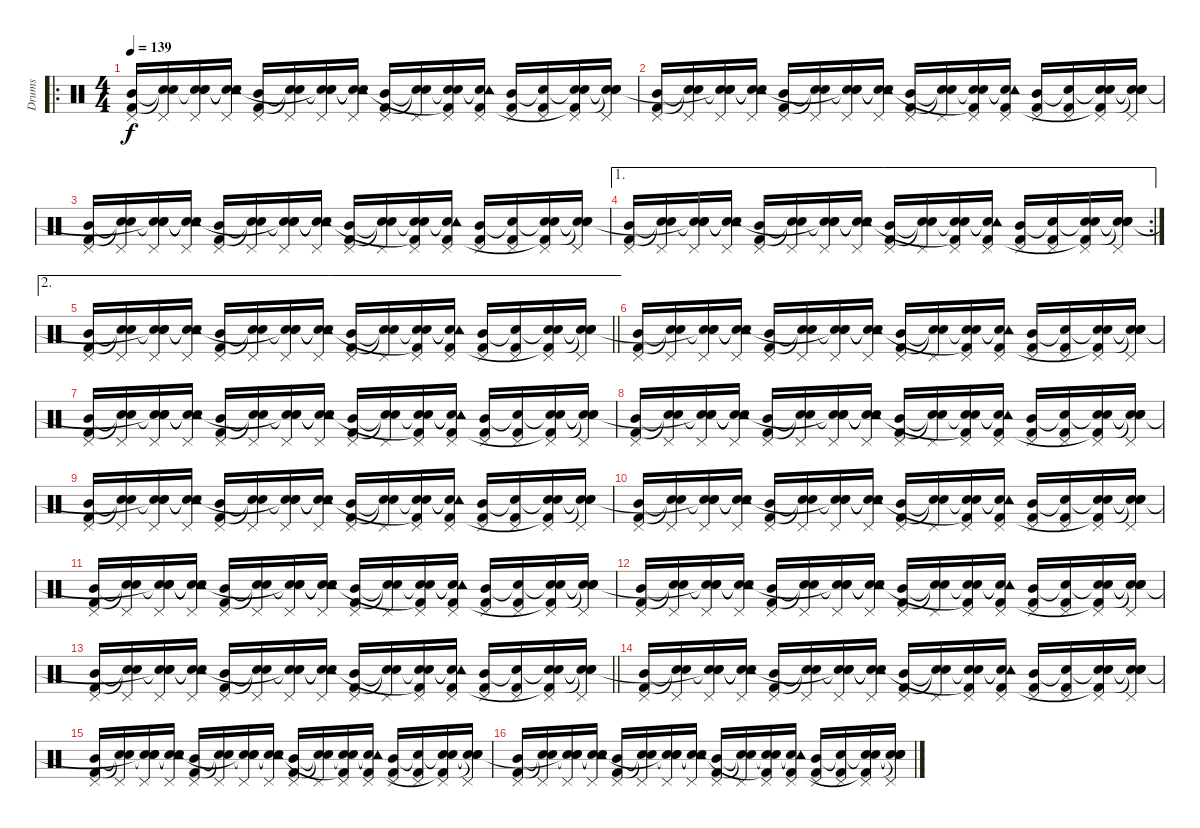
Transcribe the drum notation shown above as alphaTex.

\track ("Drums" "Drums") {instrument percussion}
\staff {score}
\articulation defaults
\ro
\ts (4 4)
\tempo 139
\clef neutral
\ks c
("Mid Tom (hit)" "Pedal Hi-Hat (hit)" "Kick (hit) 2").16{dy f} ("Snare (hit)"{t} "Pedal Hi-Hat (hit)" "Snare (hit)"{t}).16 ("Snare (hit)"{t} "Snare (hit) 2" "Pedal Hi-Hat (hit)" "Snare (hit)"{t}).16 ("Snare (hit)"{t} "Tambourine (hit)"{t} "Pedal Hi-Hat (hit)" "Snare (hit)"{t}).16 ("Mid Tom (hit)" "Pedal Hi-Hat (hit)" "Kick (hit) 2").16 ("Snare (hit)"{t} "Pedal Hi-Hat (hit)" "Snare (hit)"{t}).16 ("Snare (hit)"{t} "Snare (hit) 2" "Pedal Hi-Hat (hit)" "Snare (hit)"{t}).16 ("Snare (hit)"{t} "Tambourine (hit)"{t} "Pedal Hi-Hat (hit)" "Snare (hit)"{t}).16 ("Mid Tom (hit)" "Pedal Hi-Hat (hit)" "Kick (hit) 2").16 ("Snare (hit)"{t} "Pedal Hi-Hat (hit)" "Snare (hit)"{t}).16 ("Snare (hit)"{t} "Snare (hit) 2" "Pedal Hi-Hat (hit)" "Kick (hit) 2"{t}).16 ("Snare (hit)"{t} "Tambourine (hit)"{t} "Pedal Hi-Hat (hit)" "Kick (hit) 2").16 ("Mid Tom (hit)" "Pedal Hi-Hat (hit)" "Kick (hit) 2").16 ("Snare (hit)"{t} "Pedal Hi-Hat (hit)" "Kick (hit) 2").16 ("Snare (hit)"{t} "Snare (hit) 2" "Pedal Hi-Hat (hit)" "Kick (hit) 2"{t}).16 ("Snare (hit)"{t} "Snare (hit)"{t} "Pedal Hi-Hat (hit)" "Snare (hit)"{t}).16 |
("Mid Tom (hit)" "Pedal Hi-Hat (hit)" "Kick (hit) 2").16 ("Snare (hit)"{t} "Pedal Hi-Hat (hit)" "Snare (hit)"{t}).16 ("Snare (hit)"{t} "Snare (hit) 2" "Pedal Hi-Hat (hit)" "Snare (hit)"{t}).16 ("Snare (hit)"{t} "Tambourine (hit)"{t} "Pedal Hi-Hat (hit)" "Snare (hit)"{t}).16 ("Mid Tom (hit)" "Pedal Hi-Hat (hit)" "Kick (hit) 2").16 ("Snare (hit)"{t} "Pedal Hi-Hat (hit)" "Snare (hit)"{t}).16 ("Snare (hit)"{t} "Snare (hit) 2" "Pedal Hi-Hat (hit)" "Snare (hit)"{t}).16 ("Snare (hit)"{t} "Tambourine (hit)"{t} "Pedal Hi-Hat (hit)" "Snare (hit)"{t}).16 ("Mid Tom (hit)" "Pedal Hi-Hat (hit)" "Kick (hit) 2").16 ("Snare (hit)"{t} "Pedal Hi-Hat (hit)" "Snare (hit)"{t}).16 ("Snare (hit)"{t} "Snare (hit) 2" "Pedal Hi-Hat (hit)" "Kick (hit) 2"{t}).16 ("Snare (hit)"{t} "Tambourine (hit)"{t} "Pedal Hi-Hat (hit)" "Kick (hit) 2").16 ("Mid Tom (hit)" "Pedal Hi-Hat (hit)" "Kick (hit) 2").16 ("Snare (hit)"{t} "Pedal Hi-Hat (hit)" "Kick (hit) 2").16 ("Snare (hit)"{t} "Snare (hit) 2" "Pedal Hi-Hat (hit)" "Kick (hit) 2"{t}).16 ("Snare (hit)"{t} "Snare (hit)"{t} "Pedal Hi-Hat (hit)" "Snare (hit)"{t}).16 |
("Mid Tom (hit)" "Pedal Hi-Hat (hit)" "Kick (hit) 2").16 ("Snare (hit)"{t} "Pedal Hi-Hat (hit)" "Snare (hit)"{t}).16 ("Snare (hit)"{t} "Snare (hit) 2" "Pedal Hi-Hat (hit)" "Snare (hit)"{t}).16 ("Snare (hit)"{t} "Tambourine (hit)"{t} "Pedal Hi-Hat (hit)" "Snare (hit)"{t}).16 ("Mid Tom (hit)" "Pedal Hi-Hat (hit)" "Kick (hit) 2").16 ("Snare (hit)"{t} "Pedal Hi-Hat (hit)" "Snare (hit)"{t}).16 ("Snare (hit)"{t} "Snare (hit) 2" "Pedal Hi-Hat (hit)" "Snare (hit)"{t}).16 ("Snare (hit)"{t} "Tambourine (hit)"{t} "Pedal Hi-Hat (hit)" "Snare (hit)"{t}).16 ("Mid Tom (hit)" "Pedal Hi-Hat (hit)" "Kick (hit) 2").16 ("Snare (hit)"{t} "Pedal Hi-Hat (hit)" "Snare (hit)"{t}).16 ("Snare (hit)"{t} "Snare (hit) 2" "Pedal Hi-Hat (hit)" "Kick (hit) 2"{t}).16 ("Snare (hit)"{t} "Tambourine (hit)"{t} "Pedal Hi-Hat (hit)" "Kick (hit) 2").16 ("Mid Tom (hit)" "Pedal Hi-Hat (hit)" "Kick (hit) 2").16 ("Snare (hit)"{t} "Pedal Hi-Hat (hit)" "Kick (hit) 2").16 ("Snare (hit)"{t} "Snare (hit) 2" "Pedal Hi-Hat (hit)" "Kick (hit) 2"{t}).16 ("Snare (hit)"{t} "Snare (hit)"{t} "Pedal Hi-Hat (hit)" "Snare (hit)"{t}).16 |
\ae 1
\rc 2
("Mid Tom (hit)" "Pedal Hi-Hat (hit)" "Kick (hit) 2").16 ("Snare (hit)"{t} "Pedal Hi-Hat (hit)" "Snare (hit)"{t}).16 ("Snare (hit)"{t} "Snare (hit) 2" "Pedal Hi-Hat (hit)" "Snare (hit)"{t}).16 ("Snare (hit)"{t} "Tambourine (hit)"{t} "Pedal Hi-Hat (hit)" "Snare (hit)"{t}).16 ("Mid Tom (hit)" "Pedal Hi-Hat (hit)" "Kick (hit) 2").16 ("Snare (hit)"{t} "Pedal Hi-Hat (hit)" "Snare (hit)"{t}).16 ("Snare (hit)"{t} "Snare (hit) 2" "Pedal Hi-Hat (hit)" "Snare (hit)"{t}).16 ("Snare (hit)"{t} "Tambourine (hit)"{t} "Pedal Hi-Hat (hit)" "Snare (hit)"{t}).16 ("Mid Tom (hit)" "Pedal Hi-Hat (hit)" "Kick (hit) 2").16 ("Snare (hit)"{t} "Pedal Hi-Hat (hit)" "Snare (hit)"{t}).16 ("Snare (hit)"{t} "Snare (hit) 2" "Pedal Hi-Hat (hit)" "Kick (hit) 2"{t}).16 ("Snare (hit)"{t} "Tambourine (hit)"{t} "Pedal Hi-Hat (hit)" "Kick (hit) 2").16 ("Mid Tom (hit)" "Pedal Hi-Hat (hit)" "Kick (hit) 2").16 ("Snare (hit)"{t} "Pedal Hi-Hat (hit)" "Kick (hit) 2").16 ("Snare (hit)"{t} "Snare (hit) 2" "Pedal Hi-Hat (hit)" "Kick (hit) 2"{t}).16 ("Snare (hit)"{t} "Snare (hit)"{t} "Pedal Hi-Hat (hit)" "Snare (hit)"{t}).16 |
\ae 2
\barLineRight lightlight
("Mid Tom (hit)" "Pedal Hi-Hat (hit)" "Kick (hit) 2").16 ("Snare (hit)"{t} "Pedal Hi-Hat (hit)" "Snare (hit)"{t}).16 ("Snare (hit)"{t} "Snare (hit) 2" "Pedal Hi-Hat (hit)" "Snare (hit)"{t}).16 ("Snare (hit)"{t} "Tambourine (hit)"{t} "Pedal Hi-Hat (hit)" "Snare (hit)"{t}).16 ("Mid Tom (hit)" "Pedal Hi-Hat (hit)" "Kick (hit) 2").16 ("Snare (hit)"{t} "Pedal Hi-Hat (hit)" "Snare (hit)"{t}).16 ("Snare (hit)"{t} "Snare (hit) 2" "Pedal Hi-Hat (hit)" "Snare (hit)"{t}).16 ("Snare (hit)"{t} "Tambourine (hit)"{t} "Pedal Hi-Hat (hit)" "Snare (hit)"{t}).16 ("Mid Tom (hit)" "Pedal Hi-Hat (hit)" "Kick (hit) 2").16 ("Snare (hit)"{t} "Pedal Hi-Hat (hit)" "Snare (hit)"{t}).16 ("Snare (hit)"{t} "Snare (hit) 2" "Pedal Hi-Hat (hit)" "Kick (hit) 2"{t}).16 ("Snare (hit)"{t} "Tambourine (hit)"{t} "Pedal Hi-Hat (hit)" "Kick (hit) 2").16 ("Mid Tom (hit)" "Pedal Hi-Hat (hit)" "Kick (hit) 2").16 ("Snare (hit)"{t} "Pedal Hi-Hat (hit)" "Kick (hit) 2").16 ("Snare (hit)"{t} "Snare (hit) 2" "Pedal Hi-Hat (hit)" "Kick (hit) 2"{t}).16 ("Snare (hit)"{t} "Snare (hit)"{t} "Pedal Hi-Hat (hit)" "Snare (hit)"{t}).16 |
("Mid Tom (hit)" "Pedal Hi-Hat (hit)" "Kick (hit) 2").16 ("Snare (hit)"{t} "Pedal Hi-Hat (hit)" "Snare (hit)"{t}).16 ("Snare (hit)"{t} "Snare (hit) 2" "Pedal Hi-Hat (hit)" "Snare (hit)"{t}).16 ("Snare (hit)"{t} "Tambourine (hit)"{t} "Pedal Hi-Hat (hit)" "Snare (hit)"{t}).16 ("Mid Tom (hit)" "Pedal Hi-Hat (hit)" "Kick (hit) 2").16 ("Snare (hit)"{t} "Pedal Hi-Hat (hit)" "Snare (hit)"{t}).16 ("Snare (hit)"{t} "Snare (hit) 2" "Pedal Hi-Hat (hit)" "Snare (hit)"{t}).16 ("Snare (hit)"{t} "Tambourine (hit)"{t} "Pedal Hi-Hat (hit)" "Snare (hit)"{t}).16 ("Mid Tom (hit)" "Pedal Hi-Hat (hit)" "Kick (hit) 2").16 ("Snare (hit)"{t} "Pedal Hi-Hat (hit)" "Snare (hit)"{t}).16 ("Snare (hit)"{t} "Snare (hit) 2" "Pedal Hi-Hat (hit)" "Kick (hit) 2"{t}).16 ("Snare (hit)"{t} "Tambourine (hit)"{t} "Pedal Hi-Hat (hit)" "Kick (hit) 2").16 ("Mid Tom (hit)" "Pedal Hi-Hat (hit)" "Kick (hit) 2").16 ("Snare (hit)"{t} "Pedal Hi-Hat (hit)" "Kick (hit) 2").16 ("Snare (hit)"{t} "Snare (hit) 2" "Pedal Hi-Hat (hit)" "Kick (hit) 2"{t}).16 ("Snare (hit)"{t} "Snare (hit)"{t} "Pedal Hi-Hat (hit)" "Snare (hit)"{t}).16 |
("Mid Tom (hit)" "Pedal Hi-Hat (hit)" "Kick (hit) 2").16 ("Snare (hit)"{t} "Pedal Hi-Hat (hit)" "Snare (hit)"{t}).16 ("Snare (hit)"{t} "Snare (hit) 2" "Pedal Hi-Hat (hit)" "Snare (hit)"{t}).16 ("Snare (hit)"{t} "Tambourine (hit)"{t} "Pedal Hi-Hat (hit)" "Snare (hit)"{t}).16 ("Mid Tom (hit)" "Pedal Hi-Hat (hit)" "Kick (hit) 2").16 ("Snare (hit)"{t} "Pedal Hi-Hat (hit)" "Snare (hit)"{t}).16 ("Snare (hit)"{t} "Snare (hit) 2" "Pedal Hi-Hat (hit)" "Snare (hit)"{t}).16 ("Snare (hit)"{t} "Tambourine (hit)"{t} "Pedal Hi-Hat (hit)" "Snare (hit)"{t}).16 ("Mid Tom (hit)" "Pedal Hi-Hat (hit)" "Kick (hit) 2").16 ("Snare (hit)"{t} "Pedal Hi-Hat (hit)" "Snare (hit)"{t}).16 ("Snare (hit)"{t} "Snare (hit) 2" "Pedal Hi-Hat (hit)" "Kick (hit) 2"{t}).16 ("Snare (hit)"{t} "Tambourine (hit)"{t} "Pedal Hi-Hat (hit)" "Kick (hit) 2").16 ("Mid Tom (hit)" "Pedal Hi-Hat (hit)" "Kick (hit) 2").16 ("Snare (hit)"{t} "Pedal Hi-Hat (hit)" "Kick (hit) 2").16 ("Snare (hit)"{t} "Snare (hit) 2" "Pedal Hi-Hat (hit)" "Kick (hit) 2"{t}).16 ("Snare (hit)"{t} "Snare (hit)"{t} "Pedal Hi-Hat (hit)" "Snare (hit)"{t}).16 |
("Mid Tom (hit)" "Pedal Hi-Hat (hit)" "Kick (hit) 2").16 ("Snare (hit)"{t} "Pedal Hi-Hat (hit)" "Snare (hit)"{t}).16 ("Snare (hit)"{t} "Snare (hit) 2" "Pedal Hi-Hat (hit)" "Snare (hit)"{t}).16 ("Snare (hit)"{t} "Tambourine (hit)"{t} "Pedal Hi-Hat (hit)" "Snare (hit)"{t}).16 ("Mid Tom (hit)" "Pedal Hi-Hat (hit)" "Kick (hit) 2").16 ("Snare (hit)"{t} "Pedal Hi-Hat (hit)" "Snare (hit)"{t}).16 ("Snare (hit)"{t} "Snare (hit) 2" "Pedal Hi-Hat (hit)" "Snare (hit)"{t}).16 ("Snare (hit)"{t} "Tambourine (hit)"{t} "Pedal Hi-Hat (hit)" "Snare (hit)"{t}).16 ("Mid Tom (hit)" "Pedal Hi-Hat (hit)" "Kick (hit) 2").16 ("Snare (hit)"{t} "Pedal Hi-Hat (hit)" "Snare (hit)"{t}).16 ("Snare (hit)"{t} "Snare (hit) 2" "Pedal Hi-Hat (hit)" "Kick (hit) 2"{t}).16 ("Snare (hit)"{t} "Tambourine (hit)"{t} "Pedal Hi-Hat (hit)" "Kick (hit) 2").16 ("Mid Tom (hit)" "Pedal Hi-Hat (hit)" "Kick (hit) 2").16 ("Snare (hit)"{t} "Pedal Hi-Hat (hit)" "Kick (hit) 2").16 ("Snare (hit)"{t} "Snare (hit) 2" "Pedal Hi-Hat (hit)" "Kick (hit) 2"{t}).16 ("Snare (hit)"{t} "Snare (hit)"{t} "Pedal Hi-Hat (hit)" "Snare (hit)"{t}).16 |
("Mid Tom (hit)" "Pedal Hi-Hat (hit)" "Kick (hit) 2").16 ("Snare (hit)"{t} "Pedal Hi-Hat (hit)" "Snare (hit)"{t}).16 ("Snare (hit)"{t} "Snare (hit) 2" "Pedal Hi-Hat (hit)" "Snare (hit)"{t}).16 ("Snare (hit)"{t} "Tambourine (hit)"{t} "Pedal Hi-Hat (hit)" "Snare (hit)"{t}).16 ("Mid Tom (hit)" "Pedal Hi-Hat (hit)" "Kick (hit) 2").16 ("Snare (hit)"{t} "Pedal Hi-Hat (hit)" "Snare (hit)"{t}).16 ("Snare (hit)"{t} "Snare (hit) 2" "Pedal Hi-Hat (hit)" "Snare (hit)"{t}).16 ("Snare (hit)"{t} "Tambourine (hit)"{t} "Pedal Hi-Hat (hit)" "Snare (hit)"{t}).16 ("Mid Tom (hit)" "Pedal Hi-Hat (hit)" "Kick (hit) 2").16 ("Snare (hit)"{t} "Pedal Hi-Hat (hit)" "Snare (hit)"{t}).16 ("Snare (hit)"{t} "Snare (hit) 2" "Pedal Hi-Hat (hit)" "Kick (hit) 2"{t}).16 ("Snare (hit)"{t} "Tambourine (hit)"{t} "Pedal Hi-Hat (hit)" "Kick (hit) 2").16 ("Mid Tom (hit)" "Pedal Hi-Hat (hit)" "Kick (hit) 2").16 ("Snare (hit)"{t} "Pedal Hi-Hat (hit)" "Kick (hit) 2").16 ("Snare (hit)"{t} "Snare (hit) 2" "Pedal Hi-Hat (hit)" "Kick (hit) 2"{t}).16 ("Snare (hit)"{t} "Snare (hit)"{t} "Pedal Hi-Hat (hit)" "Snare (hit)"{t}).16 |
("Mid Tom (hit)" "Pedal Hi-Hat (hit)" "Kick (hit) 2").16 ("Snare (hit)"{t} "Pedal Hi-Hat (hit)" "Snare (hit)"{t}).16 ("Snare (hit)"{t} "Snare (hit) 2" "Pedal Hi-Hat (hit)" "Snare (hit)"{t}).16 ("Snare (hit)"{t} "Tambourine (hit)"{t} "Pedal Hi-Hat (hit)" "Snare (hit)"{t}).16 ("Mid Tom (hit)" "Pedal Hi-Hat (hit)" "Kick (hit) 2").16 ("Snare (hit)"{t} "Pedal Hi-Hat (hit)" "Snare (hit)"{t}).16 ("Snare (hit)"{t} "Snare (hit) 2" "Pedal Hi-Hat (hit)" "Snare (hit)"{t}).16 ("Snare (hit)"{t} "Tambourine (hit)"{t} "Pedal Hi-Hat (hit)" "Snare (hit)"{t}).16 ("Mid Tom (hit)" "Pedal Hi-Hat (hit)" "Kick (hit) 2").16 ("Snare (hit)"{t} "Pedal Hi-Hat (hit)" "Snare (hit)"{t}).16 ("Snare (hit)"{t} "Snare (hit) 2" "Pedal Hi-Hat (hit)" "Kick (hit) 2"{t}).16 ("Snare (hit)"{t} "Tambourine (hit)"{t} "Pedal Hi-Hat (hit)" "Kick (hit) 2").16 ("Mid Tom (hit)" "Pedal Hi-Hat (hit)" "Kick (hit) 2").16 ("Snare (hit)"{t} "Pedal Hi-Hat (hit)" "Kick (hit) 2").16 ("Snare (hit)"{t} "Snare (hit) 2" "Pedal Hi-Hat (hit)" "Kick (hit) 2"{t}).16 ("Snare (hit)"{t} "Snare (hit)"{t} "Pedal Hi-Hat (hit)" "Snare (hit)"{t}).16 |
("Mid Tom (hit)" "Pedal Hi-Hat (hit)" "Kick (hit) 2").16 ("Snare (hit)"{t} "Pedal Hi-Hat (hit)" "Snare (hit)"{t}).16 ("Snare (hit)"{t} "Snare (hit) 2" "Pedal Hi-Hat (hit)" "Snare (hit)"{t}).16 ("Snare (hit)"{t} "Tambourine (hit)"{t} "Pedal Hi-Hat (hit)" "Snare (hit)"{t}).16 ("Mid Tom (hit)" "Pedal Hi-Hat (hit)" "Kick (hit) 2").16 ("Snare (hit)"{t} "Pedal Hi-Hat (hit)" "Snare (hit)"{t}).16 ("Snare (hit)"{t} "Snare (hit) 2" "Pedal Hi-Hat (hit)" "Snare (hit)"{t}).16 ("Snare (hit)"{t} "Tambourine (hit)"{t} "Pedal Hi-Hat (hit)" "Snare (hit)"{t}).16 ("Mid Tom (hit)" "Pedal Hi-Hat (hit)" "Kick (hit) 2").16 ("Snare (hit)"{t} "Pedal Hi-Hat (hit)" "Snare (hit)"{t}).16 ("Snare (hit)"{t} "Snare (hit) 2" "Pedal Hi-Hat (hit)" "Kick (hit) 2"{t}).16 ("Snare (hit)"{t} "Tambourine (hit)"{t} "Pedal Hi-Hat (hit)" "Kick (hit) 2").16 ("Mid Tom (hit)" "Pedal Hi-Hat (hit)" "Kick (hit) 2").16 ("Snare (hit)"{t} "Pedal Hi-Hat (hit)" "Kick (hit) 2").16 ("Snare (hit)"{t} "Snare (hit) 2" "Pedal Hi-Hat (hit)" "Kick (hit) 2"{t}).16 ("Snare (hit)"{t} "Snare (hit)"{t} "Pedal Hi-Hat (hit)" "Snare (hit)"{t}).16 |
("Mid Tom (hit)" "Pedal Hi-Hat (hit)" "Kick (hit) 2").16 ("Snare (hit)"{t} "Pedal Hi-Hat (hit)" "Snare (hit)"{t}).16 ("Snare (hit)"{t} "Snare (hit) 2" "Pedal Hi-Hat (hit)" "Snare (hit)"{t}).16 ("Snare (hit)"{t} "Tambourine (hit)"{t} "Pedal Hi-Hat (hit)" "Snare (hit)"{t}).16 ("Mid Tom (hit)" "Pedal Hi-Hat (hit)" "Kick (hit) 2").16 ("Snare (hit)"{t} "Pedal Hi-Hat (hit)" "Snare (hit)"{t}).16 ("Snare (hit)"{t} "Snare (hit) 2" "Pedal Hi-Hat (hit)" "Snare (hit)"{t}).16 ("Snare (hit)"{t} "Tambourine (hit)"{t} "Pedal Hi-Hat (hit)" "Snare (hit)"{t}).16 ("Mid Tom (hit)" "Pedal Hi-Hat (hit)" "Kick (hit) 2").16 ("Snare (hit)"{t} "Pedal Hi-Hat (hit)" "Snare (hit)"{t}).16 ("Snare (hit)"{t} "Snare (hit) 2" "Pedal Hi-Hat (hit)" "Kick (hit) 2"{t}).16 ("Snare (hit)"{t} "Tambourine (hit)"{t} "Pedal Hi-Hat (hit)" "Kick (hit) 2").16 ("Mid Tom (hit)" "Pedal Hi-Hat (hit)" "Kick (hit) 2").16 ("Snare (hit)"{t} "Pedal Hi-Hat (hit)" "Kick (hit) 2").16 ("Snare (hit)"{t} "Snare (hit) 2" "Pedal Hi-Hat (hit)" "Kick (hit) 2"{t}).16 ("Snare (hit)"{t} "Snare (hit)"{t} "Pedal Hi-Hat (hit)" "Snare (hit)"{t}).16 |
\barLineRight lightlight
("Mid Tom (hit)" "Pedal Hi-Hat (hit)" "Kick (hit) 2").16 ("Snare (hit)"{t} "Pedal Hi-Hat (hit)" "Snare (hit)"{t}).16 ("Snare (hit)"{t} "Snare (hit) 2" "Pedal Hi-Hat (hit)" "Snare (hit)"{t}).16 ("Snare (hit)"{t} "Tambourine (hit)"{t} "Pedal Hi-Hat (hit)" "Snare (hit)"{t}).16 ("Mid Tom (hit)" "Pedal Hi-Hat (hit)" "Kick (hit) 2").16 ("Snare (hit)"{t} "Pedal Hi-Hat (hit)" "Snare (hit)"{t}).16 ("Snare (hit)"{t} "Snare (hit) 2" "Pedal Hi-Hat (hit)" "Snare (hit)"{t}).16 ("Snare (hit)"{t} "Tambourine (hit)"{t} "Pedal Hi-Hat (hit)" "Snare (hit)"{t}).16 ("Mid Tom (hit)" "Pedal Hi-Hat (hit)" "Kick (hit) 2").16 ("Snare (hit)"{t} "Pedal Hi-Hat (hit)" "Snare (hit)"{t}).16 ("Snare (hit)"{t} "Snare (hit) 2" "Pedal Hi-Hat (hit)" "Kick (hit) 2"{t}).16 ("Snare (hit)"{t} "Tambourine (hit)"{t} "Pedal Hi-Hat (hit)" "Kick (hit) 2").16 ("Mid Tom (hit)" "Pedal Hi-Hat (hit)" "Kick (hit) 2").16 ("Snare (hit)"{t} "Pedal Hi-Hat (hit)" "Kick (hit) 2").16 ("Snare (hit)"{t} "Snare (hit) 2" "Pedal Hi-Hat (hit)" "Kick (hit) 2"{t}).16 ("Snare (hit)"{t} "Snare (hit)"{t} "Pedal Hi-Hat (hit)" "Snare (hit)"{t}).16 |
("Mid Tom (hit)" "Pedal Hi-Hat (hit)" "Kick (hit) 2").16 ("Snare (hit)"{t} "Pedal Hi-Hat (hit)" "Snare (hit)"{t}).16 ("Snare (hit)"{t} "Snare (hit) 2" "Pedal Hi-Hat (hit)" "Snare (hit)"{t}).16 ("Snare (hit)"{t} "Tambourine (hit)"{t} "Pedal Hi-Hat (hit)" "Snare (hit)"{t}).16 ("Mid Tom (hit)" "Pedal Hi-Hat (hit)" "Kick (hit) 2").16 ("Snare (hit)"{t} "Pedal Hi-Hat (hit)" "Snare (hit)"{t}).16 ("Snare (hit)"{t} "Snare (hit) 2" "Pedal Hi-Hat (hit)" "Snare (hit)"{t}).16 ("Snare (hit)"{t} "Tambourine (hit)"{t} "Pedal Hi-Hat (hit)" "Snare (hit)"{t}).16 ("Mid Tom (hit)" "Pedal Hi-Hat (hit)" "Kick (hit) 2").16 ("Snare (hit)"{t} "Pedal Hi-Hat (hit)" "Snare (hit)"{t}).16 ("Snare (hit)"{t} "Snare (hit) 2" "Pedal Hi-Hat (hit)" "Kick (hit) 2"{t}).16 ("Snare (hit)"{t} "Tambourine (hit)"{t} "Pedal Hi-Hat (hit)" "Kick (hit) 2").16 ("Mid Tom (hit)" "Pedal Hi-Hat (hit)" "Kick (hit) 2").16 ("Snare (hit)"{t} "Pedal Hi-Hat (hit)" "Kick (hit) 2").16 ("Snare (hit)"{t} "Snare (hit) 2" "Pedal Hi-Hat (hit)" "Kick (hit) 2"{t}).16 ("Snare (hit)"{t} "Snare (hit)"{t} "Pedal Hi-Hat (hit)" "Snare (hit)"{t}).16 |
("Mid Tom (hit)" "Pedal Hi-Hat (hit)" "Kick (hit) 2").16 ("Snare (hit)"{t} "Pedal Hi-Hat (hit)" "Snare (hit)"{t}).16 ("Snare (hit)"{t} "Snare (hit) 2" "Pedal Hi-Hat (hit)" "Snare (hit)"{t}).16 ("Snare (hit)"{t} "Tambourine (hit)"{t} "Pedal Hi-Hat (hit)" "Snare (hit)"{t}).16 ("Mid Tom (hit)" "Pedal Hi-Hat (hit)" "Kick (hit) 2").16 ("Snare (hit)"{t} "Pedal Hi-Hat (hit)" "Snare (hit)"{t}).16 ("Snare (hit)"{t} "Snare (hit) 2" "Pedal Hi-Hat (hit)" "Snare (hit)"{t}).16 ("Snare (hit)"{t} "Tambourine (hit)"{t} "Pedal Hi-Hat (hit)" "Snare (hit)"{t}).16 ("Mid Tom (hit)" "Pedal Hi-Hat (hit)" "Kick (hit) 2").16 ("Snare (hit)"{t} "Pedal Hi-Hat (hit)" "Snare (hit)"{t}).16 ("Snare (hit)"{t} "Snare (hit) 2" "Pedal Hi-Hat (hit)" "Kick (hit) 2"{t}).16 ("Snare (hit)"{t} "Tambourine (hit)"{t} "Pedal Hi-Hat (hit)" "Kick (hit) 2").16 ("Mid Tom (hit)" "Pedal Hi-Hat (hit)" "Kick (hit) 2").16 ("Snare (hit)"{t} "Pedal Hi-Hat (hit)" "Kick (hit) 2").16 ("Snare (hit)"{t} "Snare (hit) 2" "Pedal Hi-Hat (hit)" "Kick (hit) 2"{t}).16 ("Snare (hit)"{t} "Snare (hit)"{t} "Pedal Hi-Hat (hit)" "Snare (hit)"{t}).16 |
("Mid Tom (hit)" "Pedal Hi-Hat (hit)" "Kick (hit) 2").16 ("Snare (hit)"{t} "Pedal Hi-Hat (hit)" "Snare (hit)"{t}).16 ("Snare (hit)"{t} "Snare (hit) 2" "Pedal Hi-Hat (hit)" "Snare (hit)"{t}).16 ("Snare (hit)"{t} "Tambourine (hit)"{t} "Pedal Hi-Hat (hit)" "Snare (hit)"{t}).16 ("Mid Tom (hit)" "Pedal Hi-Hat (hit)" "Kick (hit) 2").16 ("Snare (hit)"{t} "Pedal Hi-Hat (hit)" "Snare (hit)"{t}).16 ("Snare (hit)"{t} "Snare (hit) 2" "Pedal Hi-Hat (hit)" "Snare (hit)"{t}).16 ("Snare (hit)"{t} "Tambourine (hit)"{t} "Pedal Hi-Hat (hit)" "Snare (hit)"{t}).16 ("Mid Tom (hit)" "Pedal Hi-Hat (hit)" "Kick (hit) 2").16 ("Snare (hit)"{t} "Pedal Hi-Hat (hit)" "Snare (hit)"{t}).16 ("Snare (hit)"{t} "Snare (hit) 2" "Pedal Hi-Hat (hit)" "Kick (hit) 2"{t}).16 ("Snare (hit)"{t} "Tambourine (hit)"{t} "Pedal Hi-Hat (hit)" "Kick (hit) 2").16 ("Mid Tom (hit)" "Pedal Hi-Hat (hit)" "Kick (hit) 2").16 ("Snare (hit)"{t} "Pedal Hi-Hat (hit)" "Kick (hit) 2").16 ("Snare (hit)"{t} "Snare (hit) 2" "Pedal Hi-Hat (hit)" "Kick (hit) 2"{t}).16 ("Snare (hit)"{t} "Snare (hit)"{t} "Pedal Hi-Hat (hit)" "Snare (hit)"{t}).16
